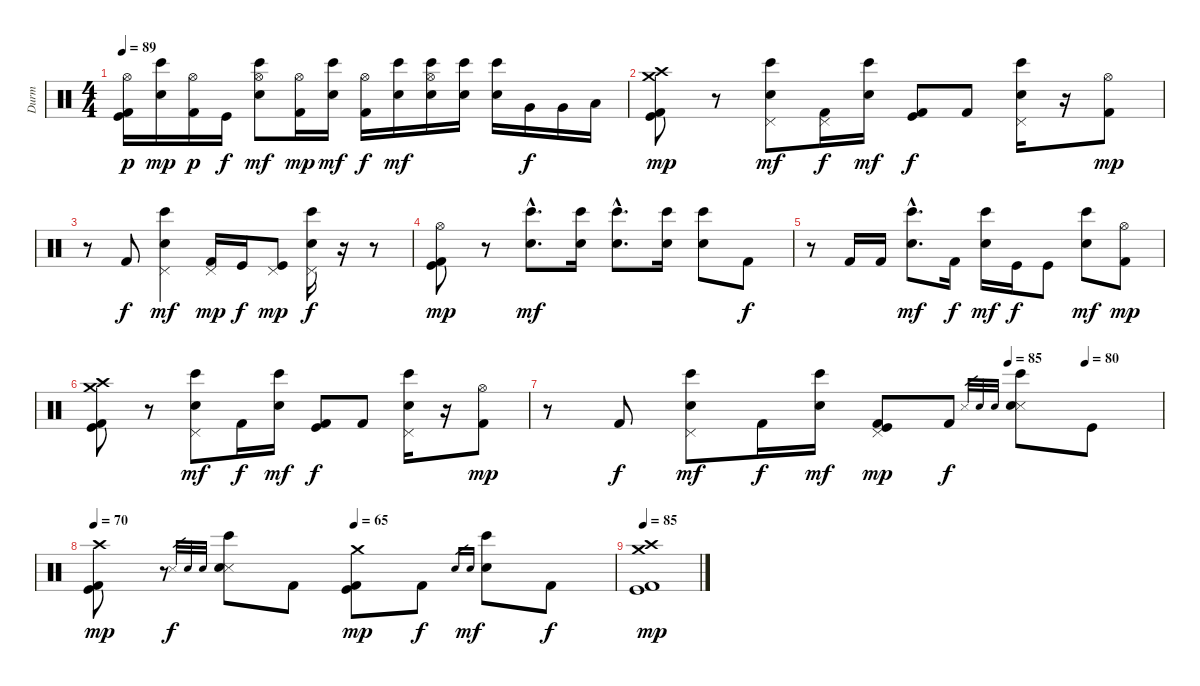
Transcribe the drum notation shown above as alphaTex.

\track ("Durm" "Durm") {instrument percussion}
\staff {score}
\articulation defaults
\ts (4 4)
\tempo 89
\clef neutral
\ks c
("Hi-Hat (open)" "Kick (hit) 2" "Kick (hit)").16{dy p} ("Bongo High (hit)" "Electric Snare (hit)").16{dy mp} ("Hi-Hat (open)" "Kick (hit) 2").16{dy p} "Kick (hit)".16{dy f} ("Hi-Hat (open)" "Bongo High (hit)" "Electric Snare (hit)").8{dy mf} ("Hi-Hat (open)" "Kick (hit) 2").16{dy mp} ("Bongo High (hit)" "Electric Snare (hit)").16{dy mf} ("Hi-Hat (open)" "Kick (hit) 2").16{dy f} ("Bongo High (hit)" "Electric Snare (hit)").16{dy mf} ("Hi-Hat (open)" "Bongo High (hit)" "Electric Snare (hit)").16 ("Bongo High (hit)" "Electric Snare (hit)").16 ("Bongo High (hit)" "Electric Snare (hit)").16 "Very Low Tom (hit)".16{dy f} "Very Low Tom (hit)".16 "Low Floor Tom (hit)".16 |
("Crash high (hit)" "Crash medium (hit)" "Kick (hit) 2" "Kick (hit)").8{dy mp} r.8 ("Pedal Hi-Hat (hit)" "Bongo High (hit)" "Electric Snare (hit)").8{dy mf} ("Pedal Hi-Hat (hit)" "Kick (hit) 2").16{dy f} ("Bongo High (hit)" "Electric Snare (hit)").16{dy mf} ("Kick (hit) 2" "Kick (hit)").8{dy f} "Kick (hit) 2".8 ("Pedal Hi-Hat (hit)" "Bongo High (hit)" "Electric Snare (hit)").16 r.16 ("Hi-Hat (open)" "Kick (hit) 2").8{dy mp} |
r.8 "Kick (hit) 2".8{dy f} ("Pedal Hi-Hat (hit)" "Bongo High (hit)" "Electric Snare (hit)").4{dy mf} ("Pedal Hi-Hat (hit)" "Kick (hit) 2").16{dy mp} "Kick (hit)".16{dy f} ("Pedal Hi-Hat (hit)" "Kick (hit)").8{dy mp} ("Pedal Hi-Hat (hit)" "Bongo High (hit)" "Electric Snare (hit)").16{dy f} r.16 r.8 |
("Hi-Hat (open)" "Kick (hit) 2" "Kick (hit)").8{dy mp} r.8 ("Bongo High (hit)"{hac} "Electric Snare (hit)"{hac}).8{d dy mf} ("Bongo High (hit)" "Electric Snare (hit)").16 ("Bongo High (hit)"{hac} "Electric Snare (hit)"{hac}).8{d} ("Bongo High (hit)" "Electric Snare (hit)").16 ("Bongo High (hit)" "Electric Snare (hit)").8 "Kick (hit) 2".8{dy f} |
r.8 "Kick (hit) 2".16 "Kick (hit) 2".16 ("Bongo High (hit)"{hac} "Electric Snare (hit)"{hac}).8{d dy mf} "Kick (hit) 2".16{dy f} ("Bongo High (hit)" "Electric Snare (hit)").16{dy mf} "Kick (hit)".16{dy f} "Kick (hit)".8 ("Electric Snare (hit)" "Bongo High (hit)").8{dy mf} ("Hi-Hat (open)" "Kick (hit) 2").8{dy mp} |
("Crash high (hit)" "Crash medium (hit)" "Kick (hit) 2" "Kick (hit)").8 r.8 ("Pedal Hi-Hat (hit)" "Bongo High (hit)" "Electric Snare (hit)").8{dy mf} "Kick (hit) 2".16{dy f} ("Bongo High (hit)" "Electric Snare (hit)").16{dy mf} ("Kick (hit) 2" "Kick (hit)").8{dy f} "Kick (hit) 2".8 ("Pedal Hi-Hat (hit)" "Bongo High (hit)" "Electric Snare (hit)").16 r.16 ("Hi-Hat (open)" "Kick (hit) 2").8{dy mp} |
\tempo (85 0.75)
\tempo (80 0.875)
r.8 "Kick (hit) 2".8{dy f} ("Pedal Hi-Hat (hit)" "Bongo High (hit)" "Electric Snare (hit)").8{dy mf} "Kick (hit) 2".16{dy f} ("Bongo High (hit)" "Electric Snare (hit)").16{dy mf} ("Pedal Hi-Hat (hit)" "Kick (hit) 2" "Kick (hit)").8{dy mp} "Kick (hit) 2".8{dy f} "Metronome (hit)".32{gr} "Snare (hit)".32{gr} "Electric Snare (hit)".32{gr} ("Metronome (hit)" "Bongo High (hit)" "Electric Snare (hit)").8 "Kick (hit)".8 |
\tempo 70
\tempo (65 0.5)
("Crash high (hit)" "Kick (hit) 2" "Kick (hit)").8{dy mp} r.8 "Metronome (hit)".32{gr dy f} "Snare (hit)".32{gr} "Electric Snare (hit)".32{gr} ("Metronome (hit)" "Bongo High (hit)" "Electric Snare (hit)").8 "Kick (hit) 2".8 ("Crash medium (hit)" "Kick (hit) 2" "Kick (hit)").8{dy mp} "Kick (hit) 2".8{dy f} "Electric Snare (hit)".16{gr} "Snare (hit)".16{gr dy mf} ("Electric Snare (hit)" "Bongo High (hit)").8 "Kick (hit) 2".8{dy f} |
\tempo 85
("Kick (hit)" "Crash high (hit)" "Crash medium (hit)" "Kick (hit) 2").1{dy mp}
